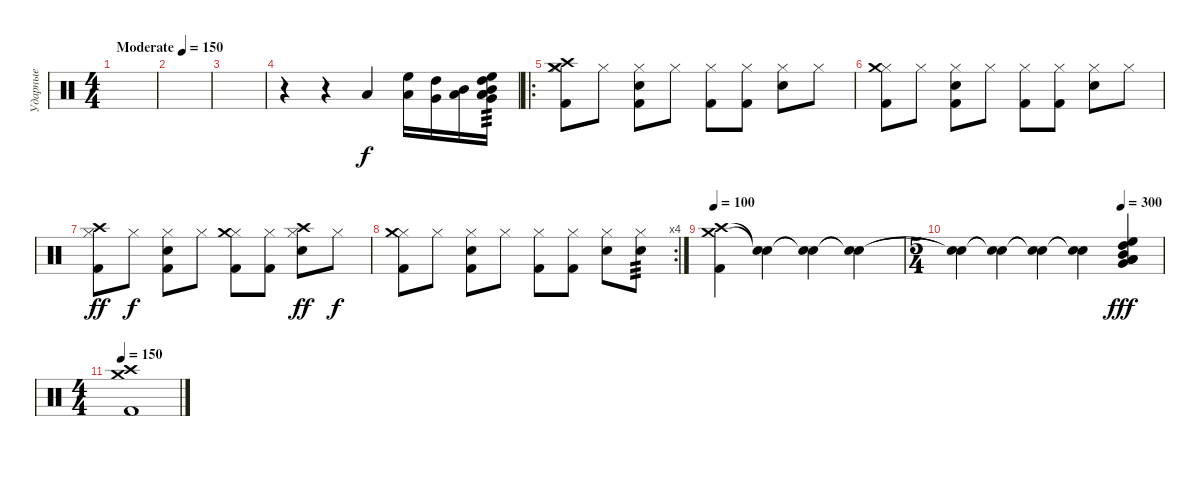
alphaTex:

\track ("Ударные" "Ударные") {instrument percussion}
\staff {score}
\articulation defaults
\ts (4 4)
\tempo (150 "Moderate")
\clef neutral
\ks c
|
|
|
r.4 r.4 "Low Floor Tom (hit)".4 ("Low Tom (hit)" "High Floor Tom (hit)").16 ("High Tom (hit)" "Very Low Tom (hit)").16 ("Mid Tom (hit)" "Low Floor Tom (hit)").16 ("Very Low Tom (hit)" "Low Floor Tom (hit)" "Low Tom (hit)" "Mid Tom (hit)" "High Tom (hit)" "High Floor Tom (hit)").16{tp 3} |
\ro
("Kick (hit) 2" "Hi-Hat (closed)" "Crash medium (hit)" "Crash high (hit)").8{dy f} "Hi-Hat (closed)".8 ("Kick (hit) 2" "Hi-Hat (closed)" "Electric Snare (hit)").8 "Hi-Hat (closed)".8 ("Hi-Hat (closed)" "Kick (hit) 2").8 ("Hi-Hat (closed)" "Kick (hit) 2").8 ("Hi-Hat (closed)" "Electric Snare (hit)").8 "Hi-Hat (closed)".8 |
("Kick (hit) 2" "Hi-Hat (closed)" "Crash medium (hit)").8 "Hi-Hat (closed)".8 ("Kick (hit) 2" "Hi-Hat (closed)" "Electric Snare (hit)").8 "Hi-Hat (closed)".8 ("Hi-Hat (closed)" "Kick (hit) 2").8 ("Hi-Hat (closed)" "Kick (hit) 2").8 ("Hi-Hat (closed)" "Electric Snare (hit)").8 "Hi-Hat (closed)".8 |
("Kick (hit) 2" "Hi-Hat (closed)" "Crash high (hit)").8{dy ff} "Hi-Hat (closed)".8{dy f} ("Kick (hit) 2" "Hi-Hat (closed)" "Electric Snare (hit)").8 "Hi-Hat (closed)".8 ("Hi-Hat (closed)" "Kick (hit) 2" "Crash medium (hit)").8 ("Hi-Hat (closed)" "Kick (hit) 2").8 ("Hi-Hat (closed)" "Electric Snare (hit)" "Crash high (hit)").8{dy ff} "Hi-Hat (closed)".8{dy f} |
\rc 4
("Kick (hit) 2" "Hi-Hat (closed)" "Crash medium (hit)").8 "Hi-Hat (closed)".8 ("Kick (hit) 2" "Hi-Hat (closed)" "Electric Snare (hit)").8 "Hi-Hat (closed)".8 ("Hi-Hat (closed)" "Kick (hit) 2").8 ("Hi-Hat (closed)" "Kick (hit) 2").8 ("Hi-Hat (closed)" "Electric Snare (hit)").8 ("Hi-Hat (closed)" "Electric Snare (hit)").8{tp 3} |
\tempo 100
("Crash high (hit)" "Crash medium (hit)" "Kick (hit) 2").4 ("Snare (hit)"{t} "Snare (hit)"{t}).4 ("Snare (hit)"{t} "Snare (hit)"{t}).4 ("Snare (hit)"{t} "Snare (hit)"{t}).4 |
\ts (5 4)
\tempo (300 0.8)
("Snare (hit)"{t} "Snare (hit)"{t}).4 ("Snare (hit)"{t} "Snare (hit)"{t}).4 ("Snare (hit)"{t} "Snare (hit)"{t}).4 ("Snare (hit)"{t} "Snare (hit)"{t}).4 ("Very Low Tom (hit)" "Low Floor Tom (hit)" "Low Tom (hit)" "Mid Tom (hit)" "High Tom (hit)" "High Floor Tom (hit)").4{dy fff} |
\ts (4 4)
\tempo 150
("Kick (hit) 2" "Crash medium (hit)" "Crash high (hit)").1
